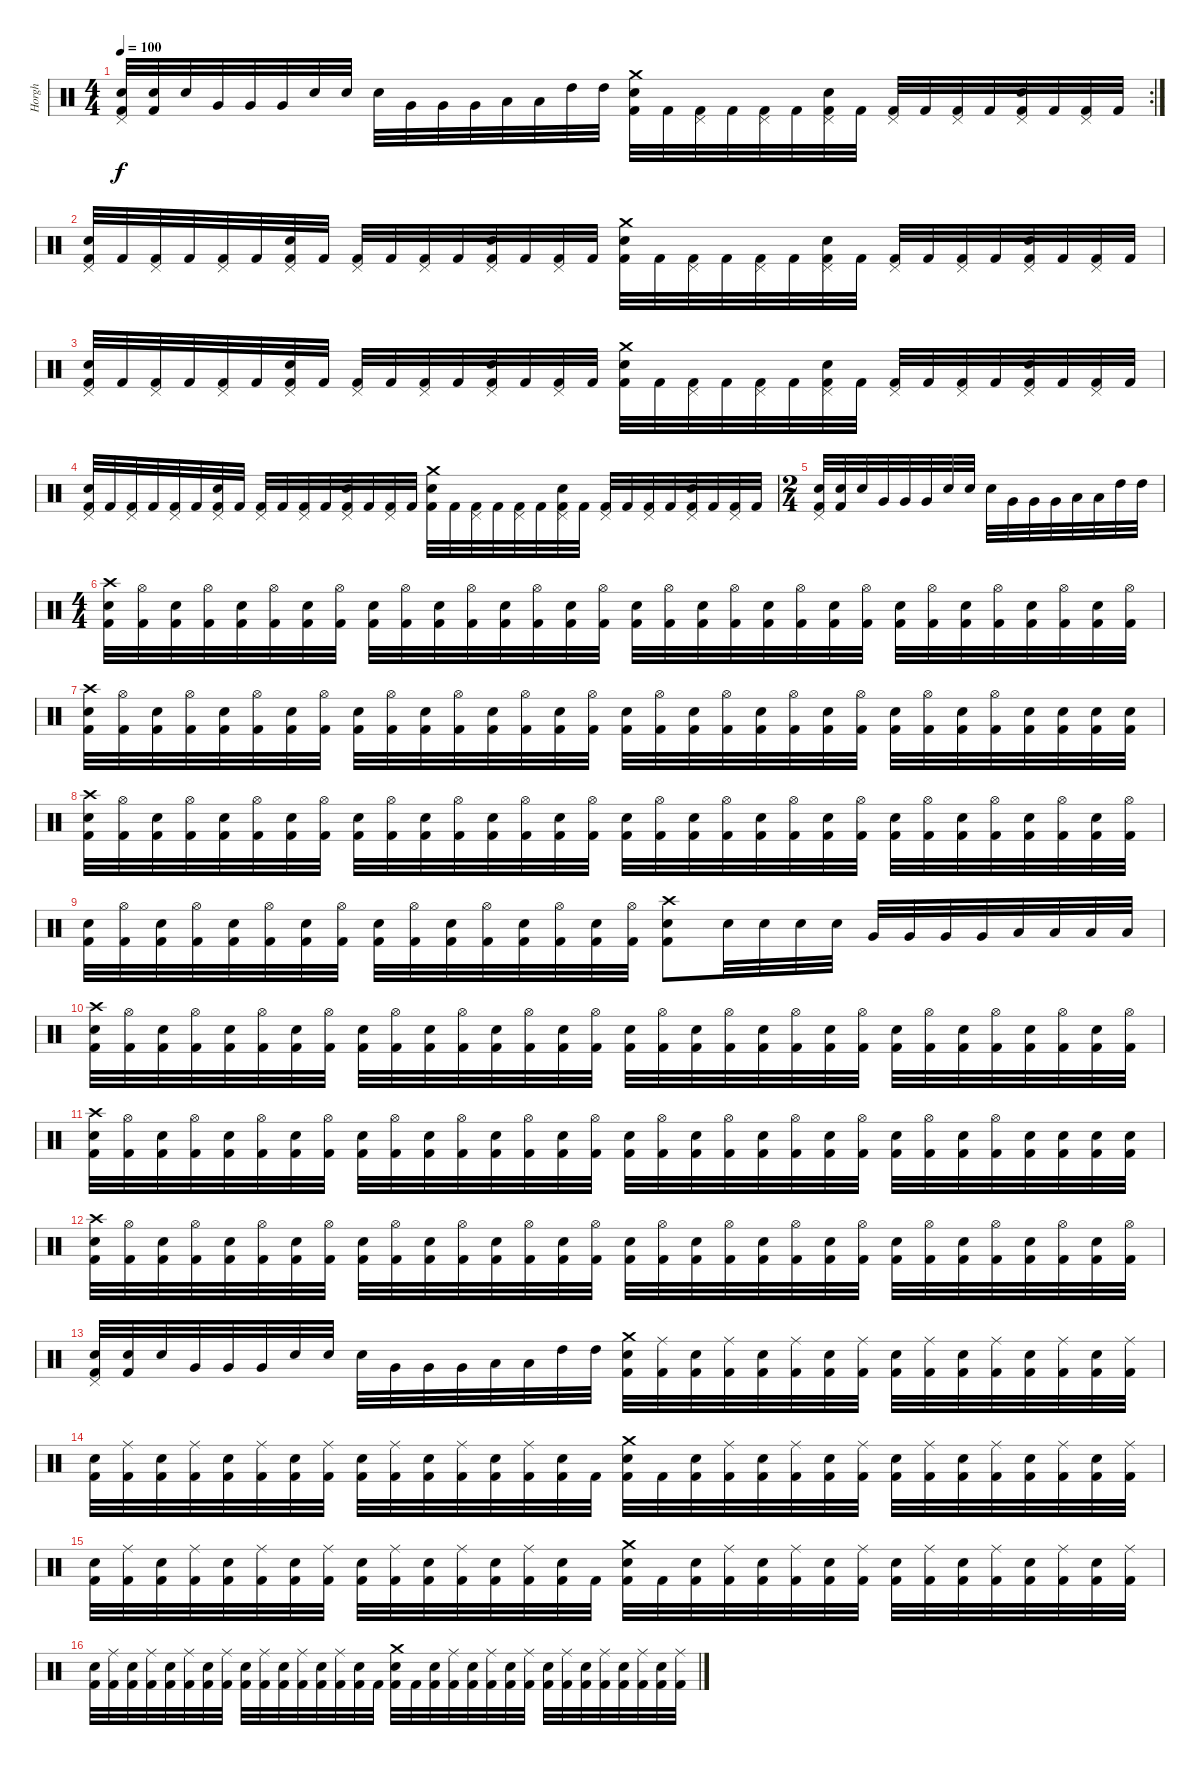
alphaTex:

\track ("Horgh" "Horgh") {instrument percussion}
\staff {score}
\articulation defaults
\rc 2
\ts (4 4)
\tempo 100
\clef neutral
\ks c
("Pedal Hi-Hat (hit)" "Electric Snare (hit)" "Kick (hit) 2").32{dy f} ("Electric Snare (hit)" "Kick (hit) 2").32 "Electric Snare (hit)".32 "Very Low Tom (hit)".32 "Very Low Tom (hit)".32 "Very Low Tom (hit)".32 "Electric Snare (hit)".32 "Electric Snare (hit)".32 "Electric Snare (hit)".32 "Very Low Tom (hit)".32 "Very Low Tom (hit)".32 "Very Low Tom (hit)".32 "Low Tom (hit)".32 "Low Tom (hit)".32 "High Tom (hit)".32 "High Tom (hit)".32 ("Crash medium (hit)" "Electric Snare (hit)" "Kick (hit) 2").32 "Kick (hit) 2".32 ("Pedal Hi-Hat (hit)" "Kick (hit) 2").32 "Kick (hit) 2".32 ("Pedal Hi-Hat (hit)" "Kick (hit) 2").32 "Kick (hit) 2".32 ("Pedal Hi-Hat (hit)" "Electric Snare (hit)" "Kick (hit) 2").32 "Kick (hit) 2".32 ("Pedal Hi-Hat (hit)" "Kick (hit) 2").32 "Kick (hit) 2".32 ("Pedal Hi-Hat (hit)" "Kick (hit) 2").32 "Kick (hit) 2".32 ("Pedal Hi-Hat (hit)" "Electric Snare (hit)" "Kick (hit) 2").32 "Kick (hit) 2".32 ("Pedal Hi-Hat (hit)" "Kick (hit) 2").32 "Kick (hit) 2".32 |
("Pedal Hi-Hat (hit)" "Electric Snare (hit)" "Kick (hit) 2").32 "Kick (hit) 2".32 ("Pedal Hi-Hat (hit)" "Kick (hit) 2").32 "Kick (hit) 2".32 ("Pedal Hi-Hat (hit)" "Kick (hit) 2").32 "Kick (hit) 2".32 ("Pedal Hi-Hat (hit)" "Electric Snare (hit)" "Kick (hit) 2").32 "Kick (hit) 2".32 ("Pedal Hi-Hat (hit)" "Kick (hit) 2").32 "Kick (hit) 2".32 ("Pedal Hi-Hat (hit)" "Kick (hit) 2").32 "Kick (hit) 2".32 ("Pedal Hi-Hat (hit)" "Electric Snare (hit)" "Kick (hit) 2").32 "Kick (hit) 2".32 ("Pedal Hi-Hat (hit)" "Kick (hit) 2").32 "Kick (hit) 2".32 ("Crash medium (hit)" "Electric Snare (hit)" "Kick (hit) 2").32 "Kick (hit) 2".32 ("Pedal Hi-Hat (hit)" "Kick (hit) 2").32 "Kick (hit) 2".32 ("Pedal Hi-Hat (hit)" "Kick (hit) 2").32 "Kick (hit) 2".32 ("Pedal Hi-Hat (hit)" "Electric Snare (hit)" "Kick (hit) 2").32 "Kick (hit) 2".32 ("Pedal Hi-Hat (hit)" "Kick (hit) 2").32 "Kick (hit) 2".32 ("Pedal Hi-Hat (hit)" "Kick (hit) 2").32 "Kick (hit) 2".32 ("Pedal Hi-Hat (hit)" "Electric Snare (hit)" "Kick (hit) 2").32 "Kick (hit) 2".32 ("Pedal Hi-Hat (hit)" "Kick (hit) 2").32 "Kick (hit) 2".32 |
("Pedal Hi-Hat (hit)" "Electric Snare (hit)" "Kick (hit) 2").32 "Kick (hit) 2".32 ("Pedal Hi-Hat (hit)" "Kick (hit) 2").32 "Kick (hit) 2".32 ("Pedal Hi-Hat (hit)" "Kick (hit) 2").32 "Kick (hit) 2".32 ("Pedal Hi-Hat (hit)" "Electric Snare (hit)" "Kick (hit) 2").32 "Kick (hit) 2".32 ("Pedal Hi-Hat (hit)" "Kick (hit) 2").32 "Kick (hit) 2".32 ("Pedal Hi-Hat (hit)" "Kick (hit) 2").32 "Kick (hit) 2".32 ("Pedal Hi-Hat (hit)" "Electric Snare (hit)" "Kick (hit) 2").32 "Kick (hit) 2".32 ("Pedal Hi-Hat (hit)" "Kick (hit) 2").32 "Kick (hit) 2".32 ("Crash medium (hit)" "Electric Snare (hit)" "Kick (hit) 2").32 "Kick (hit) 2".32 ("Pedal Hi-Hat (hit)" "Kick (hit) 2").32 "Kick (hit) 2".32 ("Pedal Hi-Hat (hit)" "Kick (hit) 2").32 "Kick (hit) 2".32 ("Pedal Hi-Hat (hit)" "Electric Snare (hit)" "Kick (hit) 2").32 "Kick (hit) 2".32 ("Pedal Hi-Hat (hit)" "Kick (hit) 2").32 "Kick (hit) 2".32 ("Pedal Hi-Hat (hit)" "Kick (hit) 2").32 "Kick (hit) 2".32 ("Pedal Hi-Hat (hit)" "Electric Snare (hit)" "Kick (hit) 2").32 "Kick (hit) 2".32 ("Pedal Hi-Hat (hit)" "Kick (hit) 2").32 "Kick (hit) 2".32 |
("Pedal Hi-Hat (hit)" "Electric Snare (hit)" "Kick (hit) 2").32 "Kick (hit) 2".32 ("Pedal Hi-Hat (hit)" "Kick (hit) 2").32 "Kick (hit) 2".32 ("Pedal Hi-Hat (hit)" "Kick (hit) 2").32 "Kick (hit) 2".32 ("Pedal Hi-Hat (hit)" "Electric Snare (hit)" "Kick (hit) 2").32 "Kick (hit) 2".32 ("Pedal Hi-Hat (hit)" "Kick (hit) 2").32 "Kick (hit) 2".32 ("Pedal Hi-Hat (hit)" "Kick (hit) 2").32 "Kick (hit) 2".32 ("Pedal Hi-Hat (hit)" "Electric Snare (hit)" "Kick (hit) 2").32 "Kick (hit) 2".32 ("Pedal Hi-Hat (hit)" "Kick (hit) 2").32 "Kick (hit) 2".32 ("Crash medium (hit)" "Electric Snare (hit)" "Kick (hit) 2").32 "Kick (hit) 2".32 ("Pedal Hi-Hat (hit)" "Kick (hit) 2").32 "Kick (hit) 2".32 ("Pedal Hi-Hat (hit)" "Kick (hit) 2").32 "Kick (hit) 2".32 ("Pedal Hi-Hat (hit)" "Electric Snare (hit)" "Kick (hit) 2").32 "Kick (hit) 2".32 ("Pedal Hi-Hat (hit)" "Kick (hit) 2").32 "Kick (hit) 2".32 ("Pedal Hi-Hat (hit)" "Kick (hit) 2").32 "Kick (hit) 2".32 ("Pedal Hi-Hat (hit)" "Electric Snare (hit)" "Kick (hit) 2").32 "Kick (hit) 2".32 ("Pedal Hi-Hat (hit)" "Kick (hit) 2").32 "Kick (hit) 2".32 |
\ts (2 4)
("Pedal Hi-Hat (hit)" "Electric Snare (hit)" "Kick (hit) 2").32 ("Electric Snare (hit)" "Kick (hit) 2").32 "Electric Snare (hit)".32 "Very Low Tom (hit)".32 "Very Low Tom (hit)".32 "Very Low Tom (hit)".32 "Electric Snare (hit)".32 "Electric Snare (hit)".32 "Electric Snare (hit)".32 "Very Low Tom (hit)".32 "Very Low Tom (hit)".32 "Very Low Tom (hit)".32 "Low Tom (hit)".32 "Low Tom (hit)".32 "High Tom (hit)".32 "High Tom (hit)".32 |
\ts (4 4)
("Crash high (hit)" "Electric Snare (hit)" "Kick (hit) 2").32 ("Hi-Hat (open)" "Kick (hit) 2").32 ("Electric Snare (hit)" "Kick (hit) 2").32 ("Hi-Hat (open)" "Kick (hit) 2").32 ("Electric Snare (hit)" "Kick (hit) 2").32 ("Hi-Hat (open)" "Kick (hit) 2").32 ("Electric Snare (hit)" "Kick (hit) 2").32 ("Hi-Hat (open)" "Kick (hit) 2").32 ("Electric Snare (hit)" "Kick (hit) 2").32 ("Hi-Hat (open)" "Kick (hit) 2").32 ("Electric Snare (hit)" "Kick (hit) 2").32 ("Hi-Hat (open)" "Kick (hit) 2").32 ("Electric Snare (hit)" "Kick (hit) 2").32 ("Hi-Hat (open)" "Kick (hit) 2").32 ("Electric Snare (hit)" "Kick (hit) 2").32 ("Hi-Hat (open)" "Kick (hit) 2").32 ("Electric Snare (hit)" "Kick (hit) 2").32 ("Hi-Hat (open)" "Kick (hit) 2").32 ("Electric Snare (hit)" "Kick (hit) 2").32 ("Hi-Hat (open)" "Kick (hit) 2").32 ("Electric Snare (hit)" "Kick (hit) 2").32 ("Hi-Hat (open)" "Kick (hit) 2").32 ("Electric Snare (hit)" "Kick (hit) 2").32 ("Hi-Hat (open)" "Kick (hit) 2").32 ("Electric Snare (hit)" "Kick (hit) 2").32 ("Hi-Hat (open)" "Kick (hit) 2").32 ("Electric Snare (hit)" "Kick (hit) 2").32 ("Hi-Hat (open)" "Kick (hit) 2").32 ("Electric Snare (hit)" "Kick (hit) 2").32 ("Hi-Hat (open)" "Kick (hit) 2").32 ("Electric Snare (hit)" "Kick (hit) 2").32 ("Hi-Hat (open)" "Kick (hit) 2").32 |
("Crash high (hit)" "Electric Snare (hit)" "Kick (hit) 2").32 ("Hi-Hat (open)" "Kick (hit) 2").32 ("Electric Snare (hit)" "Kick (hit) 2").32 ("Hi-Hat (open)" "Kick (hit) 2").32 ("Electric Snare (hit)" "Kick (hit) 2").32 ("Hi-Hat (open)" "Kick (hit) 2").32 ("Electric Snare (hit)" "Kick (hit) 2").32 ("Hi-Hat (open)" "Kick (hit) 2").32 ("Electric Snare (hit)" "Kick (hit) 2").32 ("Hi-Hat (open)" "Kick (hit) 2").32 ("Electric Snare (hit)" "Kick (hit) 2").32 ("Hi-Hat (open)" "Kick (hit) 2").32 ("Electric Snare (hit)" "Kick (hit) 2").32 ("Hi-Hat (open)" "Kick (hit) 2").32 ("Electric Snare (hit)" "Kick (hit) 2").32 ("Hi-Hat (open)" "Kick (hit) 2").32 ("Electric Snare (hit)" "Kick (hit) 2").32 ("Hi-Hat (open)" "Kick (hit) 2").32 ("Electric Snare (hit)" "Kick (hit) 2").32 ("Hi-Hat (open)" "Kick (hit) 2").32 ("Electric Snare (hit)" "Kick (hit) 2").32 ("Hi-Hat (open)" "Kick (hit) 2").32 ("Electric Snare (hit)" "Kick (hit) 2").32 ("Hi-Hat (open)" "Kick (hit) 2").32 ("Electric Snare (hit)" "Kick (hit) 2").32 ("Hi-Hat (open)" "Kick (hit) 2").32 ("Electric Snare (hit)" "Kick (hit) 2").32 ("Hi-Hat (open)" "Kick (hit) 2").32 ("Electric Snare (hit)" "Kick (hit) 2").32 ("Electric Snare (hit)" "Kick (hit) 2").32 ("Electric Snare (hit)" "Kick (hit) 2").32 ("Electric Snare (hit)" "Kick (hit) 2").32 |
("Crash high (hit)" "Electric Snare (hit)" "Kick (hit) 2").32 ("Hi-Hat (open)" "Kick (hit) 2").32 ("Electric Snare (hit)" "Kick (hit) 2").32 ("Hi-Hat (open)" "Kick (hit) 2").32 ("Electric Snare (hit)" "Kick (hit) 2").32 ("Hi-Hat (open)" "Kick (hit) 2").32 ("Electric Snare (hit)" "Kick (hit) 2").32 ("Hi-Hat (open)" "Kick (hit) 2").32 ("Electric Snare (hit)" "Kick (hit) 2").32 ("Hi-Hat (open)" "Kick (hit) 2").32 ("Electric Snare (hit)" "Kick (hit) 2").32 ("Hi-Hat (open)" "Kick (hit) 2").32 ("Electric Snare (hit)" "Kick (hit) 2").32 ("Hi-Hat (open)" "Kick (hit) 2").32 ("Electric Snare (hit)" "Kick (hit) 2").32 ("Hi-Hat (open)" "Kick (hit) 2").32 ("Electric Snare (hit)" "Kick (hit) 2").32 ("Hi-Hat (open)" "Kick (hit) 2").32 ("Electric Snare (hit)" "Kick (hit) 2").32 ("Hi-Hat (open)" "Kick (hit) 2").32 ("Electric Snare (hit)" "Kick (hit) 2").32 ("Hi-Hat (open)" "Kick (hit) 2").32 ("Electric Snare (hit)" "Kick (hit) 2").32 ("Hi-Hat (open)" "Kick (hit) 2").32 ("Electric Snare (hit)" "Kick (hit) 2").32 ("Hi-Hat (open)" "Kick (hit) 2").32 ("Electric Snare (hit)" "Kick (hit) 2").32 ("Hi-Hat (open)" "Kick (hit) 2").32 ("Electric Snare (hit)" "Kick (hit) 2").32 ("Hi-Hat (open)" "Kick (hit) 2").32 ("Electric Snare (hit)" "Kick (hit) 2").32 ("Hi-Hat (open)" "Kick (hit) 2").32 |
("Electric Snare (hit)" "Kick (hit) 2").32 ("Hi-Hat (open)" "Kick (hit) 2").32 ("Electric Snare (hit)" "Kick (hit) 2").32 ("Hi-Hat (open)" "Kick (hit) 2").32 ("Electric Snare (hit)" "Kick (hit) 2").32 ("Hi-Hat (open)" "Kick (hit) 2").32 ("Electric Snare (hit)" "Kick (hit) 2").32 ("Hi-Hat (open)" "Kick (hit) 2").32 ("Electric Snare (hit)" "Kick (hit) 2").32 ("Hi-Hat (open)" "Kick (hit) 2").32 ("Electric Snare (hit)" "Kick (hit) 2").32 ("Hi-Hat (open)" "Kick (hit) 2").32 ("Electric Snare (hit)" "Kick (hit) 2").32 ("Hi-Hat (open)" "Kick (hit) 2").32 ("Electric Snare (hit)" "Kick (hit) 2").32 ("Hi-Hat (open)" "Kick (hit) 2").32 ("Crash high (hit)" "Electric Snare (hit)" "Kick (hit) 2").8 "Electric Snare (hit)".32 "Electric Snare (hit)".32 "Electric Snare (hit)".32 "Electric Snare (hit)".32 "Very Low Tom (hit)".32 "Very Low Tom (hit)".32 "Very Low Tom (hit)".32 "Very Low Tom (hit)".32 "Low Tom (hit)".32 "Low Tom (hit)".32 "Low Tom (hit)".32 "Low Tom (hit)".32 |
("Crash high (hit)" "Electric Snare (hit)" "Kick (hit) 2").32 ("Hi-Hat (open)" "Kick (hit) 2").32 ("Electric Snare (hit)" "Kick (hit) 2").32 ("Hi-Hat (open)" "Kick (hit) 2").32 ("Electric Snare (hit)" "Kick (hit) 2").32 ("Hi-Hat (open)" "Kick (hit) 2").32 ("Electric Snare (hit)" "Kick (hit) 2").32 ("Hi-Hat (open)" "Kick (hit) 2").32 ("Electric Snare (hit)" "Kick (hit) 2").32 ("Hi-Hat (open)" "Kick (hit) 2").32 ("Electric Snare (hit)" "Kick (hit) 2").32 ("Hi-Hat (open)" "Kick (hit) 2").32 ("Electric Snare (hit)" "Kick (hit) 2").32 ("Hi-Hat (open)" "Kick (hit) 2").32 ("Electric Snare (hit)" "Kick (hit) 2").32 ("Hi-Hat (open)" "Kick (hit) 2").32 ("Electric Snare (hit)" "Kick (hit) 2").32 ("Hi-Hat (open)" "Kick (hit) 2").32 ("Electric Snare (hit)" "Kick (hit) 2").32 ("Hi-Hat (open)" "Kick (hit) 2").32 ("Electric Snare (hit)" "Kick (hit) 2").32 ("Hi-Hat (open)" "Kick (hit) 2").32 ("Electric Snare (hit)" "Kick (hit) 2").32 ("Hi-Hat (open)" "Kick (hit) 2").32 ("Electric Snare (hit)" "Kick (hit) 2").32 ("Hi-Hat (open)" "Kick (hit) 2").32 ("Electric Snare (hit)" "Kick (hit) 2").32 ("Hi-Hat (open)" "Kick (hit) 2").32 ("Electric Snare (hit)" "Kick (hit) 2").32 ("Hi-Hat (open)" "Kick (hit) 2").32 ("Electric Snare (hit)" "Kick (hit) 2").32 ("Hi-Hat (open)" "Kick (hit) 2").32 |
("Crash high (hit)" "Electric Snare (hit)" "Kick (hit) 2").32 ("Hi-Hat (open)" "Kick (hit) 2").32 ("Electric Snare (hit)" "Kick (hit) 2").32 ("Hi-Hat (open)" "Kick (hit) 2").32 ("Electric Snare (hit)" "Kick (hit) 2").32 ("Hi-Hat (open)" "Kick (hit) 2").32 ("Electric Snare (hit)" "Kick (hit) 2").32 ("Hi-Hat (open)" "Kick (hit) 2").32 ("Electric Snare (hit)" "Kick (hit) 2").32 ("Hi-Hat (open)" "Kick (hit) 2").32 ("Electric Snare (hit)" "Kick (hit) 2").32 ("Hi-Hat (open)" "Kick (hit) 2").32 ("Electric Snare (hit)" "Kick (hit) 2").32 ("Hi-Hat (open)" "Kick (hit) 2").32 ("Electric Snare (hit)" "Kick (hit) 2").32 ("Hi-Hat (open)" "Kick (hit) 2").32 ("Electric Snare (hit)" "Kick (hit) 2").32 ("Hi-Hat (open)" "Kick (hit) 2").32 ("Electric Snare (hit)" "Kick (hit) 2").32 ("Hi-Hat (open)" "Kick (hit) 2").32 ("Electric Snare (hit)" "Kick (hit) 2").32 ("Hi-Hat (open)" "Kick (hit) 2").32 ("Electric Snare (hit)" "Kick (hit) 2").32 ("Hi-Hat (open)" "Kick (hit) 2").32 ("Electric Snare (hit)" "Kick (hit) 2").32 ("Hi-Hat (open)" "Kick (hit) 2").32 ("Electric Snare (hit)" "Kick (hit) 2").32 ("Hi-Hat (open)" "Kick (hit) 2").32 ("Electric Snare (hit)" "Kick (hit) 2").32 ("Electric Snare (hit)" "Kick (hit) 2").32 ("Electric Snare (hit)" "Kick (hit) 2").32 ("Electric Snare (hit)" "Kick (hit) 2").32 |
("Crash high (hit)" "Electric Snare (hit)" "Kick (hit) 2").32 ("Hi-Hat (open)" "Kick (hit) 2").32 ("Electric Snare (hit)" "Kick (hit) 2").32 ("Hi-Hat (open)" "Kick (hit) 2").32 ("Electric Snare (hit)" "Kick (hit) 2").32 ("Hi-Hat (open)" "Kick (hit) 2").32 ("Electric Snare (hit)" "Kick (hit) 2").32 ("Hi-Hat (open)" "Kick (hit) 2").32 ("Electric Snare (hit)" "Kick (hit) 2").32 ("Hi-Hat (open)" "Kick (hit) 2").32 ("Electric Snare (hit)" "Kick (hit) 2").32 ("Hi-Hat (open)" "Kick (hit) 2").32 ("Electric Snare (hit)" "Kick (hit) 2").32 ("Hi-Hat (open)" "Kick (hit) 2").32 ("Electric Snare (hit)" "Kick (hit) 2").32 ("Hi-Hat (open)" "Kick (hit) 2").32 ("Electric Snare (hit)" "Kick (hit) 2").32 ("Hi-Hat (open)" "Kick (hit) 2").32 ("Electric Snare (hit)" "Kick (hit) 2").32 ("Hi-Hat (open)" "Kick (hit) 2").32 ("Electric Snare (hit)" "Kick (hit) 2").32 ("Hi-Hat (open)" "Kick (hit) 2").32 ("Electric Snare (hit)" "Kick (hit) 2").32 ("Hi-Hat (open)" "Kick (hit) 2").32 ("Electric Snare (hit)" "Kick (hit) 2").32 ("Hi-Hat (open)" "Kick (hit) 2").32 ("Electric Snare (hit)" "Kick (hit) 2").32 ("Hi-Hat (open)" "Kick (hit) 2").32 ("Electric Snare (hit)" "Kick (hit) 2").32 ("Hi-Hat (open)" "Kick (hit) 2").32 ("Electric Snare (hit)" "Kick (hit) 2").32 ("Hi-Hat (open)" "Kick (hit) 2").32 |
("Pedal Hi-Hat (hit)" "Electric Snare (hit)" "Kick (hit) 2").32 ("Electric Snare (hit)" "Kick (hit) 2").32 "Electric Snare (hit)".32 "Very Low Tom (hit)".32 "Very Low Tom (hit)".32 "Very Low Tom (hit)".32 "Electric Snare (hit)".32 "Electric Snare (hit)".32 "Electric Snare (hit)".32 "Very Low Tom (hit)".32 "Very Low Tom (hit)".32 "Very Low Tom (hit)".32 "Low Tom (hit)".32 "Low Tom (hit)".32 "High Tom (hit)".32 "High Tom (hit)".32 ("Crash medium (hit)" "Electric Snare (hit)" "Kick (hit) 2").32 ("Ride (middle)" "Kick (hit) 2").32 ("Electric Snare (hit)" "Kick (hit) 2").32 ("Ride (middle)" "Kick (hit) 2").32 ("Electric Snare (hit)" "Kick (hit) 2").32 ("Ride (middle)" "Kick (hit) 2").32 ("Electric Snare (hit)" "Kick (hit) 2").32 ("Ride (middle)" "Kick (hit) 2").32 ("Electric Snare (hit)" "Kick (hit) 2").32 ("Ride (middle)" "Kick (hit) 2").32 ("Electric Snare (hit)" "Kick (hit) 2").32 ("Ride (middle)" "Kick (hit) 2").32 ("Electric Snare (hit)" "Kick (hit) 2").32 ("Ride (middle)" "Kick (hit) 2").32 ("Electric Snare (hit)" "Kick (hit) 2").32 ("Ride (middle)" "Kick (hit) 2").32 |
("Electric Snare (hit)" "Kick (hit) 2").32 ("Ride (middle)" "Kick (hit) 2").32 ("Electric Snare (hit)" "Kick (hit) 2").32 ("Ride (middle)" "Kick (hit) 2").32 ("Electric Snare (hit)" "Kick (hit) 2").32 ("Ride (middle)" "Kick (hit) 2").32 ("Electric Snare (hit)" "Kick (hit) 2").32 ("Ride (middle)" "Kick (hit) 2").32 ("Electric Snare (hit)" "Kick (hit) 2").32 ("Ride (middle)" "Kick (hit) 2").32 ("Electric Snare (hit)" "Kick (hit) 2").32 ("Ride (middle)" "Kick (hit) 2").32 ("Electric Snare (hit)" "Kick (hit) 2").32 ("Ride (middle)" "Kick (hit) 2").32 ("Electric Snare (hit)" "Kick (hit) 2").32 "Kick (hit) 2".32 ("Crash medium (hit)" "Electric Snare (hit)" "Kick (hit) 2").32 "Kick (hit) 2".32 ("Electric Snare (hit)" "Kick (hit) 2").32 ("Ride (middle)" "Kick (hit) 2").32 ("Electric Snare (hit)" "Kick (hit) 2").32 ("Ride (middle)" "Kick (hit) 2").32 ("Electric Snare (hit)" "Kick (hit) 2").32 ("Ride (middle)" "Kick (hit) 2").32 ("Electric Snare (hit)" "Kick (hit) 2").32 ("Ride (middle)" "Kick (hit) 2").32 ("Electric Snare (hit)" "Kick (hit) 2").32 ("Ride (middle)" "Kick (hit) 2").32 ("Electric Snare (hit)" "Kick (hit) 2").32 ("Ride (middle)" "Kick (hit) 2").32 ("Electric Snare (hit)" "Kick (hit) 2").32 ("Ride (middle)" "Kick (hit) 2").32 |
("Electric Snare (hit)" "Kick (hit) 2").32 ("Ride (middle)" "Kick (hit) 2").32 ("Electric Snare (hit)" "Kick (hit) 2").32 ("Ride (middle)" "Kick (hit) 2").32 ("Electric Snare (hit)" "Kick (hit) 2").32 ("Ride (middle)" "Kick (hit) 2").32 ("Electric Snare (hit)" "Kick (hit) 2").32 ("Ride (middle)" "Kick (hit) 2").32 ("Electric Snare (hit)" "Kick (hit) 2").32 ("Ride (middle)" "Kick (hit) 2").32 ("Electric Snare (hit)" "Kick (hit) 2").32 ("Ride (middle)" "Kick (hit) 2").32 ("Electric Snare (hit)" "Kick (hit) 2").32 ("Ride (middle)" "Kick (hit) 2").32 ("Electric Snare (hit)" "Kick (hit) 2").32 "Kick (hit) 2".32 ("Crash medium (hit)" "Electric Snare (hit)" "Kick (hit) 2").32 "Kick (hit) 2".32 ("Electric Snare (hit)" "Kick (hit) 2").32 ("Ride (middle)" "Kick (hit) 2").32 ("Electric Snare (hit)" "Kick (hit) 2").32 ("Ride (middle)" "Kick (hit) 2").32 ("Electric Snare (hit)" "Kick (hit) 2").32 ("Ride (middle)" "Kick (hit) 2").32 ("Electric Snare (hit)" "Kick (hit) 2").32 ("Ride (middle)" "Kick (hit) 2").32 ("Electric Snare (hit)" "Kick (hit) 2").32 ("Ride (middle)" "Kick (hit) 2").32 ("Electric Snare (hit)" "Kick (hit) 2").32 ("Ride (middle)" "Kick (hit) 2").32 ("Electric Snare (hit)" "Kick (hit) 2").32 ("Ride (middle)" "Kick (hit) 2").32 |
("Electric Snare (hit)" "Kick (hit) 2").32 ("Ride (middle)" "Kick (hit) 2").32 ("Electric Snare (hit)" "Kick (hit) 2").32 ("Ride (middle)" "Kick (hit) 2").32 ("Electric Snare (hit)" "Kick (hit) 2").32 ("Ride (middle)" "Kick (hit) 2").32 ("Electric Snare (hit)" "Kick (hit) 2").32 ("Ride (middle)" "Kick (hit) 2").32 ("Electric Snare (hit)" "Kick (hit) 2").32 ("Ride (middle)" "Kick (hit) 2").32 ("Electric Snare (hit)" "Kick (hit) 2").32 ("Ride (middle)" "Kick (hit) 2").32 ("Electric Snare (hit)" "Kick (hit) 2").32 ("Ride (middle)" "Kick (hit) 2").32 ("Electric Snare (hit)" "Kick (hit) 2").32 "Kick (hit) 2".32 ("Crash medium (hit)" "Electric Snare (hit)" "Kick (hit) 2").32 "Kick (hit) 2".32 ("Electric Snare (hit)" "Kick (hit) 2").32 ("Ride (middle)" "Kick (hit) 2").32 ("Electric Snare (hit)" "Kick (hit) 2").32 ("Ride (middle)" "Kick (hit) 2").32 ("Electric Snare (hit)" "Kick (hit) 2").32 ("Ride (middle)" "Kick (hit) 2").32 ("Electric Snare (hit)" "Kick (hit) 2").32 ("Ride (middle)" "Kick (hit) 2").32 ("Electric Snare (hit)" "Kick (hit) 2").32 ("Ride (middle)" "Kick (hit) 2").32 ("Electric Snare (hit)" "Kick (hit) 2").32 ("Ride (middle)" "Kick (hit) 2").32 ("Electric Snare (hit)" "Kick (hit) 2").32 ("Ride (middle)" "Kick (hit) 2").32
